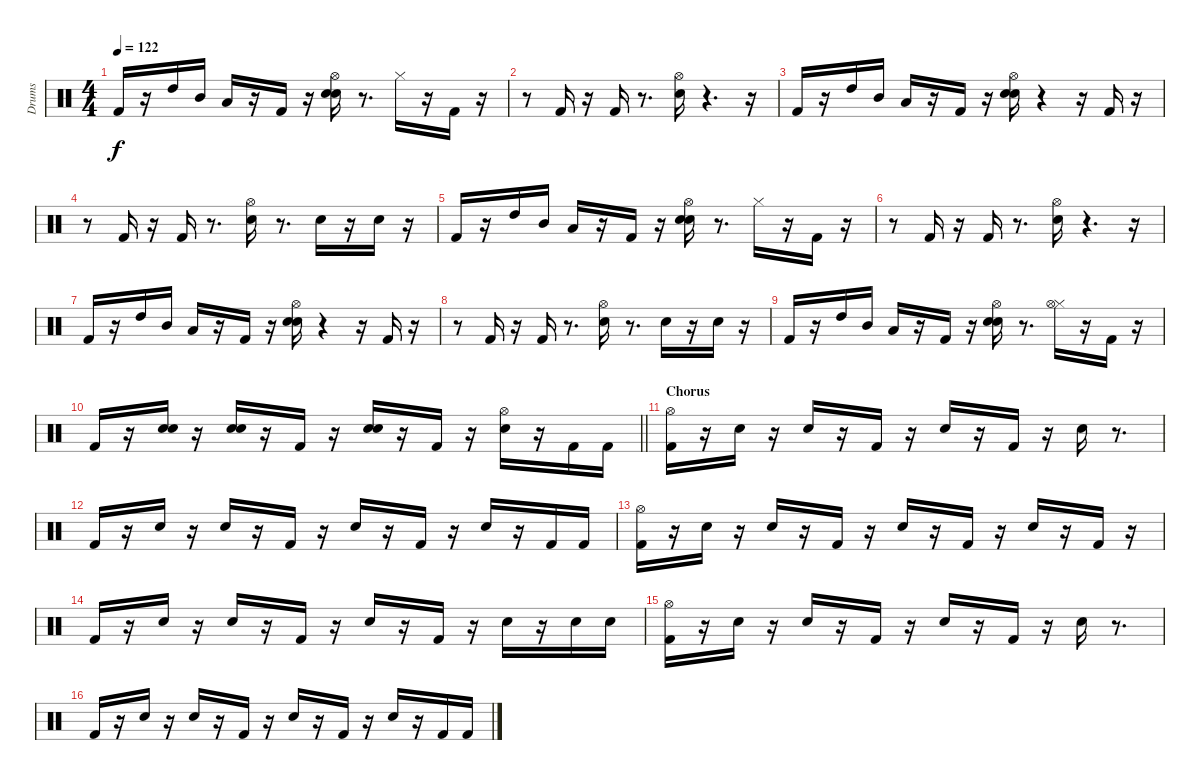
\track ("Drums" "Drums") {instrument percussion}
\staff
\articulation defaults
\ts (4 4)
\tempo 122
\clef neutral
\ks c "Kick (hit) 2".16{dy f}
r.16 "High Tom (hit)".16 "Mid Tom (hit)".16 "Low Tom (hit)".16 r.16 "Kick (hit) 2".16 r.16 ("Electric Snare (hit)" "Hi-Hat (open)" "Snare (hit) 2").16 r.8{d} "Hi-Hat (closed)".16 r.16 "Kick (hit) 2".16 r.16 |
r.8 "Kick (hit) 2".16 r.16 "Kick (hit) 2".16 r.8{d} ("Hi-Hat (open)" "Snare (hit) 2").16 r.4{d} r.16 |
"Kick (hit) 2".16 r.16 "High Tom (hit)".16 "Mid Tom (hit)".16 "Low Tom (hit)".16 r.16 "Kick (hit) 2".16 r.16 ("Hi-Hat (open)" "Electric Snare (hit)" "Snare (hit) 2").16 r.4 r.16 "Kick (hit) 2".16 r.16 |
r.8 "Kick (hit) 2".16 r.16 "Kick (hit) 2".16 r.8{d} ("Hi-Hat (open)" "Snare (hit) 2").16 r.8{d} "Snare (hit) 2".16 r.16 "Snare (hit) 2".16 r.16 |
"Kick (hit) 2".16 r.16 "High Tom (hit)".16 "Mid Tom (hit)".16 "Low Tom (hit)".16 r.16 "Kick (hit) 2".16 r.16 ("Electric Snare (hit)" "Hi-Hat (open)" "Snare (hit) 2").16 r.8{d} "Hi-Hat (closed)".16 r.16 "Kick (hit) 2".16 r.16 |
r.8 "Kick (hit) 2".16 r.16 "Kick (hit) 2".16 r.8{d} ("Hi-Hat (open)" "Snare (hit) 2").16 r.4{d} r.16 |
"Kick (hit) 2".16 r.16 "High Tom (hit)".16 "Mid Tom (hit)".16 "Low Tom (hit)".16 r.16 "Kick (hit) 2".16 r.16 ("Hi-Hat (open)" "Electric Snare (hit)" "Snare (hit) 2").16 r.4 r.16 "Kick (hit) 2".16 r.16 |
r.8 "Kick (hit) 2".16 r.16 "Kick (hit) 2".16 r.8{d} ("Hi-Hat (open)" "Snare (hit) 2").16 r.8{d} "Snare (hit) 2".16 r.16 "Snare (hit) 2".16 r.16 |
"Kick (hit) 2".16 r.16 "High Tom (hit)".16 "Mid Tom (hit)".16 "Low Tom (hit)".16 r.16 "Kick (hit) 2".16 r.16 ("Electric Snare (hit)" "Hi-Hat (open)" "Snare (hit) 2").16 r.8{d} ("Hi-Hat (closed)" "Hi-Hat (open)").16 r.16 "Kick (hit) 2".16 r.16 |
\barLineRight lightlight "Kick (hit) 2".16
r.16 ("Electric Snare (hit)" "Snare (hit) 2").16 r.16 ("Electric Snare (hit)" "Snare (hit) 2").16 r.16 "Kick (hit) 2".16 r.16 ("Electric Snare (hit)" "Snare (hit) 2").16 r.16 "Kick (hit) 2".16 r.16 ("Hi-Hat (open)" "Electric Snare (hit)").16 r.16 "Kick (hit) 2".16 "Kick (hit) 2".16 |
\section ("" "Chorus")
("Hi-Hat (open)" "Kick (hit) 2").16 r.16 "Snare (hit) 2".16 r.16 "Snare (hit) 2".16 r.16 "Kick (hit) 2".16 r.16 "Snare (hit) 2".16 r.16 "Kick (hit) 2".16 r.16 "Snare (hit) 2".16 r.8{d} |
"Kick (hit) 2".16 r.16 "Snare (hit) 2".16 r.16 "Snare (hit) 2".16 r.16 "Kick (hit) 2".16 r.16 "Snare (hit) 2".16 r.16 "Kick (hit) 2".16 r.16 "Snare (hit) 2".16 r.16 "Kick (hit) 2".16 "Kick (hit) 2".16 |
("Hi-Hat (open)" "Kick (hit) 2").16 r.16 "Snare (hit) 2".16 r.16 "Snare (hit) 2".16 r.16 "Kick (hit) 2".16 r.16 "Snare (hit) 2".16 r.16 "Kick (hit) 2".16 r.16 "Snare (hit) 2".16 r.16 "Kick (hit) 2".16 r.16 |
"Kick (hit) 2".16 r.16 "Snare (hit) 2".16 r.16 "Snare (hit) 2".16 r.16 "Kick (hit) 2".16 r.16 "Snare (hit) 2".16 r.16 "Kick (hit) 2".16 r.16 "Snare (hit) 2".16 r.16 "Snare (hit) 2".16 "Snare (hit) 2".16 |
("Hi-Hat (open)" "Kick (hit) 2").16 r.16 "Snare (hit) 2".16 r.16 "Snare (hit) 2".16 r.16 "Kick (hit) 2".16 r.16 "Snare (hit) 2".16 r.16 "Kick (hit) 2".16 r.16 "Snare (hit) 2".16 r.8{d} |
"Kick (hit) 2".16 r.16 "Snare (hit) 2".16 r.16 "Snare (hit) 2".16 r.16 "Kick (hit) 2".16 r.16 "Snare (hit) 2".16 r.16 "Kick (hit) 2".16 r.16 "Snare (hit) 2".16 r.16 "Kick (hit) 2".16 "Kick (hit) 2".16
